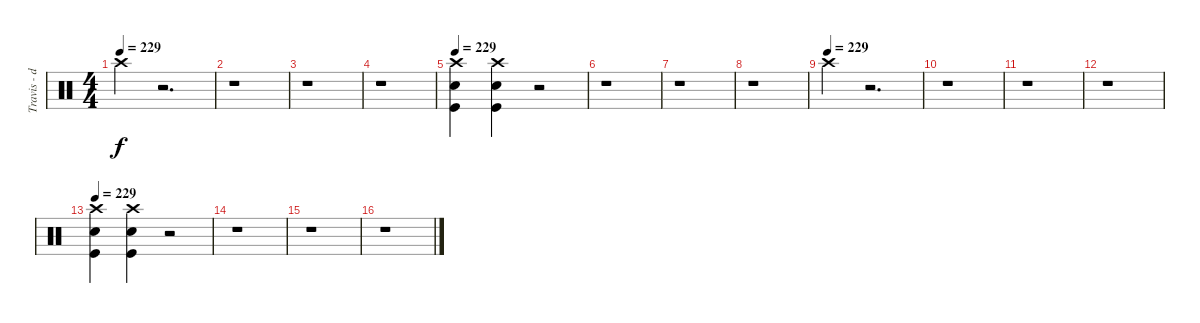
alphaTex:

\track ("Travis - drums" "Travis - d") {instrument percussion}
\staff {score}
\articulation defaults
\ts (4 4)
\tempo 229
\clef neutral
\ks c "Crash high (hit)".4{dy f}
r.2{d} |
r.1 |
r.1 |
r.1 |
\tempo 229
("Kick (hit)" "Electric Snare (hit)" "Crash high (hit)").4 ("Kick (hit)" "Electric Snare (hit)" "Crash high (hit)").4 r.2 |
r.1 |
r.1 |
r.1 |
\tempo (229)
"Crash high (hit)".4 r.2{d} |
r.1 |
r.1 |
r.1 |
\tempo 229
("Kick (hit)" "Electric Snare (hit)" "Crash high (hit)").4 ("Kick (hit)" "Electric Snare (hit)" "Crash high (hit)").4 r.2 |
r.1 |
r.1 |
r.1
